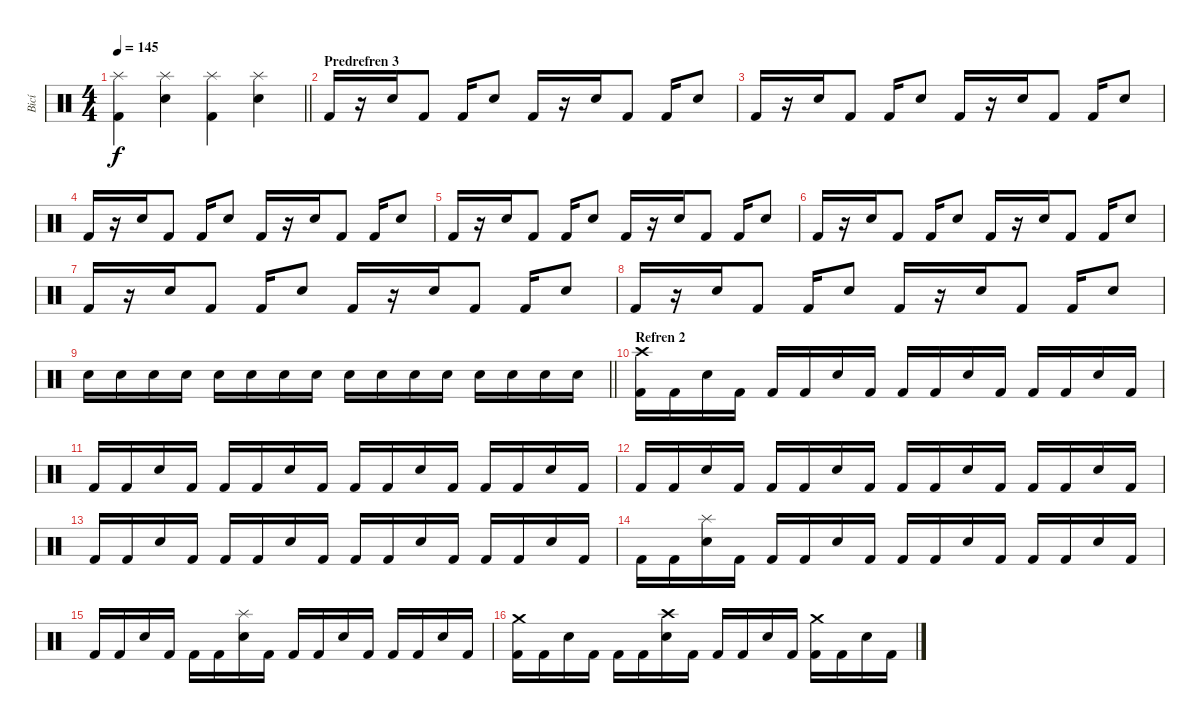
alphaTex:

\track ("Bicí" "Bicí") {instrument percussion}
\staff {score}
\articulation defaults
\ts (4 4)
\tempo 145
\clef neutral
\barLineRight lightlight
\ks c
("Kick (hit) 2" "Splash (hit)").4{dy f} ("Electric Snare (hit)" "Splash (hit)").4 ("Kick (hit) 2" "Splash (hit)").4 ("Electric Snare (hit)" "Splash (hit)").4 |
\section ("" "Predrefren 3")
"Kick (hit) 2".16 r.16 "Electric Snare (hit)".16 "Kick (hit) 2".8 "Kick (hit) 2".16 "Electric Snare (hit)".8 "Kick (hit) 2".16 r.16 "Electric Snare (hit)".16 "Kick (hit) 2".8 "Kick (hit) 2".16 "Electric Snare (hit)".8 |
"Kick (hit) 2".16 r.16 "Electric Snare (hit)".16 "Kick (hit) 2".8 "Kick (hit) 2".16 "Electric Snare (hit)".8 "Kick (hit) 2".16 r.16 "Electric Snare (hit)".16 "Kick (hit) 2".8 "Kick (hit) 2".16 "Electric Snare (hit)".8 |
"Kick (hit) 2".16 r.16 "Electric Snare (hit)".16 "Kick (hit) 2".8 "Kick (hit) 2".16 "Electric Snare (hit)".8 "Kick (hit) 2".16 r.16 "Electric Snare (hit)".16 "Kick (hit) 2".8 "Kick (hit) 2".16 "Electric Snare (hit)".8 |
"Kick (hit) 2".16 r.16 "Electric Snare (hit)".16 "Kick (hit) 2".8 "Kick (hit) 2".16 "Electric Snare (hit)".8 "Kick (hit) 2".16 r.16 "Electric Snare (hit)".16 "Kick (hit) 2".8 "Kick (hit) 2".16 "Electric Snare (hit)".8 |
"Kick (hit) 2".16 r.16 "Electric Snare (hit)".16 "Kick (hit) 2".8 "Kick (hit) 2".16 "Electric Snare (hit)".8 "Kick (hit) 2".16 r.16 "Electric Snare (hit)".16 "Kick (hit) 2".8 "Kick (hit) 2".16 "Electric Snare (hit)".8 |
"Kick (hit) 2".16 r.16 "Electric Snare (hit)".16 "Kick (hit) 2".8 "Kick (hit) 2".16 "Electric Snare (hit)".8 "Kick (hit) 2".16 r.16 "Electric Snare (hit)".16 "Kick (hit) 2".8 "Kick (hit) 2".16 "Electric Snare (hit)".8 |
"Kick (hit) 2".16 r.16 "Electric Snare (hit)".16 "Kick (hit) 2".8 "Kick (hit) 2".16 "Electric Snare (hit)".8 "Kick (hit) 2".16 r.16 "Electric Snare (hit)".16 "Kick (hit) 2".8 "Kick (hit) 2".16 "Electric Snare (hit)".8 |
\barLineRight lightlight "Electric Snare (hit)".16 "Electric Snare (hit)".16 "Electric Snare (hit)".16 "Electric Snare (hit)".16 "Electric Snare (hit)".16 "Electric Snare (hit)".16 "Electric Snare (hit)".16 "Electric Snare (hit)".16 "Electric Snare (hit)".16 "Electric Snare (hit)".16 "Electric Snare (hit)".16 "Electric Snare (hit)".16 "Electric Snare (hit)".16 "Electric Snare (hit)".16 "Electric Snare (hit)".16 "Electric Snare (hit)".16
|
\section ("" "Refren 2")
("Kick (hit) 2" "Crash high (hit)").16 "Kick (hit) 2".16 "Electric Snare (hit)".16 "Kick (hit) 2".16 "Kick (hit) 2".16 "Kick (hit) 2".16 "Electric Snare (hit)".16 "Kick (hit) 2".16 "Kick (hit) 2".16 "Kick (hit) 2".16 "Electric Snare (hit)".16 "Kick (hit) 2".16 "Kick (hit) 2".16 "Kick (hit) 2".16 "Electric Snare (hit)".16 "Kick (hit) 2".16 |
"Kick (hit) 2".16 "Kick (hit) 2".16 "Electric Snare (hit)".16 "Kick (hit) 2".16 "Kick (hit) 2".16 "Kick (hit) 2".16 "Electric Snare (hit)".16 "Kick (hit) 2".16 "Kick (hit) 2".16 "Kick (hit) 2".16 "Electric Snare (hit)".16 "Kick (hit) 2".16 "Kick (hit) 2".16 "Kick (hit) 2".16 "Electric Snare (hit)".16 "Kick (hit) 2".16 |
"Kick (hit) 2".16 "Kick (hit) 2".16 "Electric Snare (hit)".16 "Kick (hit) 2".16 "Kick (hit) 2".16 "Kick (hit) 2".16 "Electric Snare (hit)".16 "Kick (hit) 2".16 "Kick (hit) 2".16 "Kick (hit) 2".16 "Electric Snare (hit)".16 "Kick (hit) 2".16 "Kick (hit) 2".16 "Kick (hit) 2".16 "Electric Snare (hit)".16 "Kick (hit) 2".16 |
"Kick (hit) 2".16 "Kick (hit) 2".16 "Electric Snare (hit)".16 "Kick (hit) 2".16 "Kick (hit) 2".16 "Kick (hit) 2".16 "Electric Snare (hit)".16 "Kick (hit) 2".16 "Kick (hit) 2".16 "Kick (hit) 2".16 "Electric Snare (hit)".16 "Kick (hit) 2".16 "Kick (hit) 2".16 "Kick (hit) 2".16 "Electric Snare (hit)".16 "Kick (hit) 2".16 |
"Kick (hit) 2".16 "Kick (hit) 2".16 ("Electric Snare (hit)" "Splash (hit)").16 "Kick (hit) 2".16 "Kick (hit) 2".16 "Kick (hit) 2".16 "Electric Snare (hit)".16 "Kick (hit) 2".16 "Kick (hit) 2".16 "Kick (hit) 2".16 "Electric Snare (hit)".16 "Kick (hit) 2".16 "Kick (hit) 2".16 "Kick (hit) 2".16 "Electric Snare (hit)".16 "Kick (hit) 2".16 |
"Kick (hit) 2".16 "Kick (hit) 2".16 "Electric Snare (hit)".16 "Kick (hit) 2".16 "Kick (hit) 2".16 "Kick (hit) 2".16 ("Electric Snare (hit)" "Splash (hit)").16 "Kick (hit) 2".16 "Kick (hit) 2".16 "Kick (hit) 2".16 "Electric Snare (hit)".16 "Kick (hit) 2".16 "Kick (hit) 2".16 "Kick (hit) 2".16 "Electric Snare (hit)".16 "Kick (hit) 2".16 |
("Kick (hit) 2" "Crash medium (hit)").16 "Kick (hit) 2".16 "Electric Snare (hit)".16 "Kick (hit) 2".16 "Kick (hit) 2".16 "Kick (hit) 2".16 ("Electric Snare (hit)" "Crash high (hit)").16 "Kick (hit) 2".16 "Kick (hit) 2".16 "Kick (hit) 2".16 "Electric Snare (hit)".16 "Kick (hit) 2".16 ("Kick (hit) 2" "Crash medium (hit)").16 "Kick (hit) 2".16 "Electric Snare (hit)".16 "Kick (hit) 2".16
